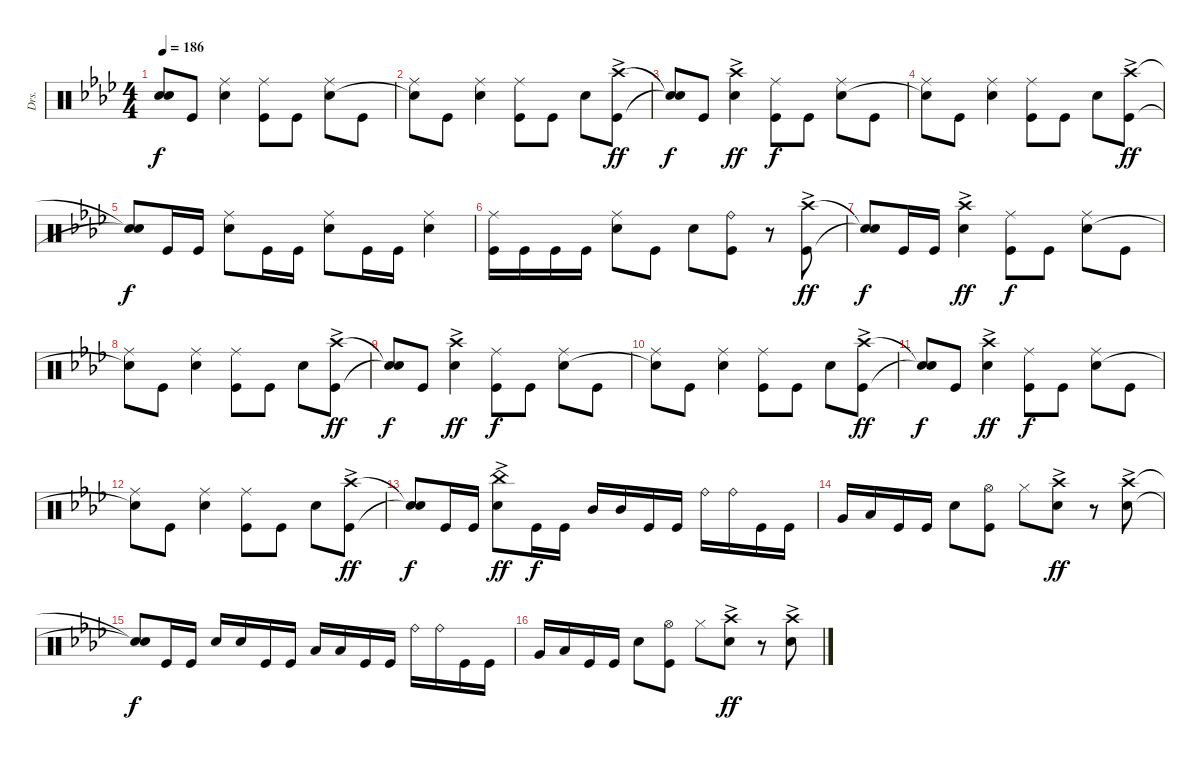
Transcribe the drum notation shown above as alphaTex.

\track ("Drs." "Drs.") {instrument percussion}
\staff {score}
\articulation defaults
\ts (4 4)
\tempo 186
\clef neutral
\ks ab
("Snare (hit)"{t} "Snare (hit)"{t}).8{dy f} "Kick (hit)".8 ("Ride (middle)" "Snare (hit) 2").4 ("Ride (middle)" "Kick (hit)").8 "Kick (hit)".8 ("Ride (middle)" "Snare (hit) 2").8 "Kick (hit)".8 |
("Ride (middle)" "Snare (hit)"{t}).8 "Kick (hit)".8 ("Ride (middle)" "Snare (hit) 2").4 ("Ride (middle)" "Kick (hit)").8 "Kick (hit)".8 "Snare (hit) 2".8 ("Crash high (hit)"{ac} "Kick (hit)").8{dy ff} |
("Snare (hit)"{t} "Snare (hit)"{t}).8{dy f} "Kick (hit)".8 ("Crash high (hit)"{ac} "Snare (hit) 2").4{dy ff} ("Ride (middle)" "Kick (hit)").8{dy f} "Kick (hit)".8 ("Ride (middle)" "Snare (hit) 2").8 "Kick (hit)".8 |
("Ride (middle)" "Snare (hit)"{t}).8 "Kick (hit)".8 ("Ride (middle)" "Snare (hit) 2").4 ("Ride (middle)" "Kick (hit)").8 "Kick (hit)".8 "Snare (hit) 2".8 ("Crash high (hit)"{ac} "Kick (hit)").8{dy ff} |
("Snare (hit)"{t} "Snare (hit)"{t}).8{dy f} "Kick (hit)".16 "Kick (hit)".16 ("Ride (middle)" "Snare (hit) 2").8 "Kick (hit)".16 "Kick (hit)".16 ("Ride (middle)" "Snare (hit) 2").8 "Kick (hit)".16 "Kick (hit)".16 ("Ride (middle)" "Snare (hit) 2").4 |
("Ride (middle)" "Kick (hit)").16 "Kick (hit)".16 "Kick (hit)".16 "Kick (hit)".16 ("Ride (middle)" "Snare (hit) 2").8 "Kick (hit)".8 "Snare (hit) 2".8 ("Ride (bell)" "Kick (hit)").8 r.8 ("Crash high (hit)"{ac} "Kick (hit)").8{dy ff} |
("Snare (hit)"{t} "Snare (hit)"{t}).8{dy f} "Kick (hit)".16 "Kick (hit)".16 ("Crash high (hit)"{ac} "Snare (hit) 2").4{dy ff} ("Ride (middle)" "Kick (hit)").8{dy f} "Kick (hit)".8 ("Ride (middle)" "Snare (hit) 2").8 "Kick (hit)".8 |
("Ride (middle)" "Snare (hit)"{t}).8 "Kick (hit)".8 ("Ride (middle)" "Snare (hit) 2").4 ("Ride (middle)" "Kick (hit)").8 "Kick (hit)".8 "Snare (hit) 2".8 ("Crash high (hit)"{ac} "Kick (hit)").8{dy ff} |
("Snare (hit)"{t} "Snare (hit)"{t}).8{dy f} "Kick (hit)".8 ("Crash high (hit)"{ac} "Snare (hit) 2").4{dy ff} ("Ride (middle)" "Kick (hit)").8{dy f} "Kick (hit)".8 ("Ride (middle)" "Snare (hit) 2").8 "Kick (hit)".8 |
("Ride (middle)" "Snare (hit)"{t}).8 "Kick (hit)".8 ("Ride (middle)" "Snare (hit) 2").4 ("Ride (middle)" "Kick (hit)").8 "Kick (hit)".8 "Snare (hit) 2".8 ("Crash high (hit)"{ac} "Kick (hit)").8{dy ff} |
("Snare (hit)"{t} "Snare (hit)"{t}).8{dy f} "Kick (hit)".8 ("Crash high (hit)"{ac} "Snare (hit) 2").4{dy ff} ("Ride (middle)" "Kick (hit)").8{dy f} "Kick (hit)".8 ("Ride (middle)" "Snare (hit) 2").8 "Kick (hit)".8 |
("Ride (middle)" "Snare (hit)"{t}).8 "Kick (hit)".8 ("Ride (middle)" "Snare (hit) 2").4 ("Ride (middle)" "Kick (hit)").8 "Kick (hit)".8 "Snare (hit) 2".8 ("Crash high (hit)"{ac} "Kick (hit)").8{dy ff} |
("Snare (hit)"{t} "Snare (hit)"{t}).8{dy f} "Kick (hit)".16 "Kick (hit)".16 ("China (hit)"{ac} "Snare (hit) 2").8{dy ff} "Kick (hit)".16{dy f} "Kick (hit)".16 "Mid Tom (hit)".16 "Mid Tom (hit)".16 "Kick (hit)".16 "Kick (hit)".16 "Ride (bell)".16 "Ride (bell)".16 "Kick (hit)".16 "Kick (hit)".16 |
"Very Low Tom (hit)".16 "Low Tom (hit)".16 "Kick (hit)".16 "Kick (hit)".16 "Snare (hit) 2".8 ("Hi-Hat (open)" "Kick (hit)").8 "Hi-Hat (closed)".8 ("Crash high (hit)"{ac} "Snare (hit) 2").8{dy ff} r.8 ("Crash high (hit)"{ac} "Snare (hit) 2").8 |
("Snare (hit)"{t} "Snare (hit)"{t}).8{dy f} "Kick (hit)".16 "Kick (hit)".16 "Snare (hit) 2".16 "Snare (hit) 2".16 "Kick (hit)".16 "Kick (hit)".16 "Low Tom (hit)".16 "Low Tom (hit)".16 "Kick (hit)".16 "Kick (hit)".16 "Ride (bell)".16 "Ride (bell)".16 "Kick (hit)".16 "Kick (hit)".16 |
"Very Low Tom (hit)".16 "Low Tom (hit)".16 "Kick (hit)".16 "Kick (hit)".16 "Snare (hit) 2".8 ("Hi-Hat (open)" "Kick (hit)").8 "Hi-Hat (closed)".8 ("Crash high (hit)"{ac} "Snare (hit) 2").8{dy ff} r.8 ("Crash high (hit)"{ac} "Snare (hit) 2").8
